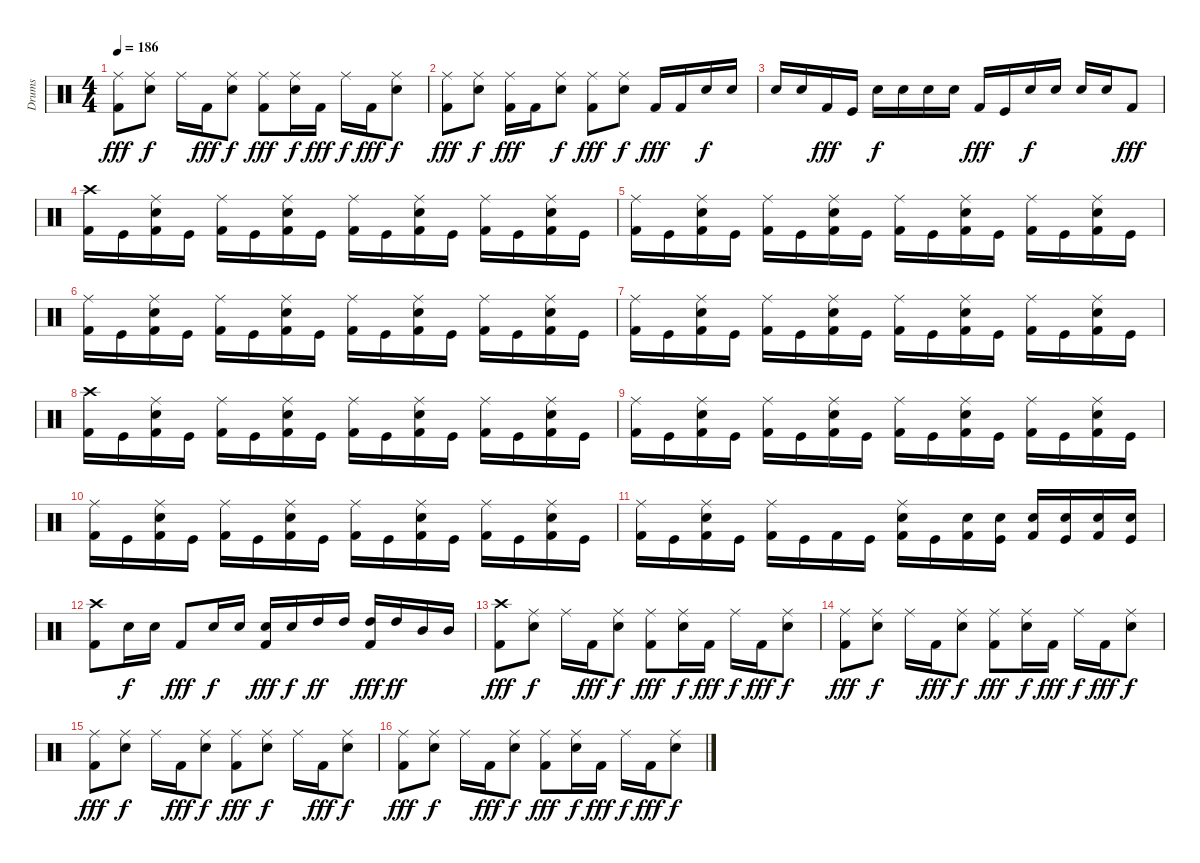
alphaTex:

\track ("Drums" "Drums") {instrument percussion}
\staff {score}
\articulation defaults
\ts (4 4)
\tempo 186
\clef neutral
\ks c
("Ride (middle)" "Kick (hit) 2").8{dy fff} ("Ride (middle)" "Electric Snare (hit)").8{dy f} "Ride (middle)".16 "Kick (hit) 2".16{dy fff} ("Ride (middle)" "Electric Snare (hit)").8{dy f} ("Ride (middle)" "Kick (hit) 2").8{dy fff} ("Ride (middle)" "Electric Snare (hit)").16{dy f} "Kick (hit) 2".16{dy fff} "Ride (middle)".16{dy f} "Kick (hit) 2".16{dy fff} ("Ride (middle)" "Electric Snare (hit)").8{dy f} |
("Ride (middle)" "Kick (hit) 2").8{dy fff} ("Ride (middle)" "Electric Snare (hit)").8{dy f} ("Ride (middle)" "Kick (hit) 2").16{dy fff} "Kick (hit) 2".16 ("Ride (middle)" "Electric Snare (hit)").8{dy f} ("Ride (middle)" "Kick (hit) 2").8{dy fff} ("Ride (middle)" "Electric Snare (hit)").8{dy f} "Kick (hit) 2".16{dy fff} "Kick (hit) 2".16 "Electric Snare (hit)".16{dy f} "Electric Snare (hit)".16 |
"Electric Snare (hit)".16 "Electric Snare (hit)".16 "Kick (hit) 2".16{dy fff} "Kick (hit)".16 "Electric Snare (hit)".16{dy f} "Electric Snare (hit)".16 "Electric Snare (hit)".16 "Electric Snare (hit)".16 "Kick (hit) 2".16{dy fff} "Kick (hit)".16 "Electric Snare (hit)".16{dy f} "Electric Snare (hit)".16 "Electric Snare (hit)".16 "Electric Snare (hit)".16 "Kick (hit) 2".8{dy fff} |
("Crash high (hit)" "Kick (hit) 2").16 "Kick (hit)".16 ("Ride (middle)" "Electric Snare (hit)" "Kick (hit) 2").16 "Kick (hit)".16 ("Ride (middle)" "Kick (hit) 2").16 "Kick (hit)".16 ("Ride (middle)" "Electric Snare (hit)" "Kick (hit) 2").16 "Kick (hit)".16 ("Ride (middle)" "Kick (hit) 2").16 "Kick (hit)".16 ("Ride (middle)" "Electric Snare (hit)" "Kick (hit) 2").16 "Kick (hit)".16 ("Ride (middle)" "Kick (hit) 2").16 "Kick (hit)".16 ("Ride (middle)" "Electric Snare (hit)" "Kick (hit) 2").16 "Kick (hit)".16 |
("Ride (middle)" "Kick (hit) 2").16 "Kick (hit)".16 ("Ride (middle)" "Electric Snare (hit)" "Kick (hit) 2").16 "Kick (hit)".16 ("Ride (middle)" "Kick (hit) 2").16 "Kick (hit)".16 ("Ride (middle)" "Electric Snare (hit)" "Kick (hit) 2").16 "Kick (hit)".16 ("Ride (middle)" "Kick (hit) 2").16 "Kick (hit)".16 ("Ride (middle)" "Electric Snare (hit)" "Kick (hit) 2").16 "Kick (hit)".16 ("Ride (middle)" "Kick (hit) 2").16 "Kick (hit)".16 ("Ride (middle)" "Electric Snare (hit)" "Kick (hit) 2").16 "Kick (hit)".16 |
("Ride (middle)" "Kick (hit) 2").16 "Kick (hit)".16 ("Ride (middle)" "Electric Snare (hit)" "Kick (hit) 2").16 "Kick (hit)".16 ("Ride (middle)" "Kick (hit) 2").16 "Kick (hit)".16 ("Ride (middle)" "Electric Snare (hit)" "Kick (hit) 2").16 "Kick (hit)".16 ("Ride (middle)" "Kick (hit) 2").16 "Kick (hit)".16 ("Ride (middle)" "Electric Snare (hit)" "Kick (hit) 2").16 "Kick (hit)".16 ("Ride (middle)" "Kick (hit) 2").16 "Kick (hit)".16 ("Ride (middle)" "Electric Snare (hit)" "Kick (hit) 2").16 "Kick (hit)".16 |
("Ride (middle)" "Kick (hit) 2").16 "Kick (hit)".16 ("Ride (middle)" "Electric Snare (hit)" "Kick (hit) 2").16 "Kick (hit)".16 ("Ride (middle)" "Kick (hit) 2").16 "Kick (hit)".16 ("Ride (middle)" "Electric Snare (hit)" "Kick (hit) 2").16 "Kick (hit)".16 ("Ride (middle)" "Kick (hit) 2").16 "Kick (hit)".16 ("Ride (middle)" "Electric Snare (hit)" "Kick (hit) 2").16 "Kick (hit)".16 ("Ride (middle)" "Kick (hit) 2").16 "Kick (hit)".16 ("Ride (middle)" "Electric Snare (hit)" "Kick (hit) 2").16 "Kick (hit)".16 |
("Crash high (hit)" "Kick (hit) 2").16 "Kick (hit)".16 ("Ride (middle)" "Electric Snare (hit)" "Kick (hit) 2").16 "Kick (hit)".16 ("Ride (middle)" "Kick (hit) 2").16 "Kick (hit)".16 ("Ride (middle)" "Electric Snare (hit)" "Kick (hit) 2").16 "Kick (hit)".16 ("Ride (middle)" "Kick (hit) 2").16 "Kick (hit)".16 ("Ride (middle)" "Electric Snare (hit)" "Kick (hit) 2").16 "Kick (hit)".16 ("Ride (middle)" "Kick (hit) 2").16 "Kick (hit)".16 ("Ride (middle)" "Electric Snare (hit)" "Kick (hit) 2").16 "Kick (hit)".16 |
("Ride (middle)" "Kick (hit) 2").16 "Kick (hit)".16 ("Ride (middle)" "Electric Snare (hit)" "Kick (hit) 2").16 "Kick (hit)".16 ("Ride (middle)" "Kick (hit) 2").16 "Kick (hit)".16 ("Ride (middle)" "Electric Snare (hit)" "Kick (hit) 2").16 "Kick (hit)".16 ("Ride (middle)" "Kick (hit) 2").16 "Kick (hit)".16 ("Ride (middle)" "Electric Snare (hit)" "Kick (hit) 2").16 "Kick (hit)".16 ("Ride (middle)" "Kick (hit) 2").16 "Kick (hit)".16 ("Ride (middle)" "Electric Snare (hit)" "Kick (hit) 2").16 "Kick (hit)".16 |
("Ride (middle)" "Kick (hit) 2").16 "Kick (hit)".16 ("Ride (middle)" "Electric Snare (hit)" "Kick (hit) 2").16 "Kick (hit)".16 ("Ride (middle)" "Kick (hit) 2").16 "Kick (hit)".16 ("Ride (middle)" "Electric Snare (hit)" "Kick (hit) 2").16 "Kick (hit)".16 ("Ride (middle)" "Kick (hit) 2").16 "Kick (hit)".16 ("Ride (middle)" "Electric Snare (hit)" "Kick (hit) 2").16 "Kick (hit)".16 ("Ride (middle)" "Kick (hit) 2").16 "Kick (hit)".16 ("Ride (middle)" "Electric Snare (hit)" "Kick (hit) 2").16 "Kick (hit)".16 |
("Ride (middle)" "Kick (hit) 2").16 "Kick (hit)".16 ("Ride (middle)" "Electric Snare (hit)" "Kick (hit) 2").16 "Kick (hit)".16 ("Ride (middle)" "Kick (hit) 2").16 "Kick (hit)".16 "Kick (hit) 2".16 "Kick (hit)".16 ("Ride (middle)" "Electric Snare (hit)" "Kick (hit) 2").16 "Kick (hit)".16 ("Electric Snare (hit)" "Kick (hit) 2").16 ("Electric Snare (hit)" "Kick (hit)").16 ("Electric Snare (hit)" "Kick (hit) 2").16 ("Electric Snare (hit)" "Kick (hit)").16 ("Electric Snare (hit)" "Kick (hit) 2").16 ("Electric Snare (hit)" "Kick (hit)").16 |
("Crash high (hit)" "Kick (hit) 2").8 "Electric Snare (hit)".16{dy f} "Electric Snare (hit)".16 "Kick (hit) 2".8{dy fff} "Electric Snare (hit)".16{dy f} "Electric Snare (hit)".16 ("Electric Snare (hit)" "Kick (hit) 2").16{dy fff} "Electric Snare (hit)".16{dy f} "High Tom (hit)".16{dy ff} "High Tom (hit)".16 ("High Tom (hit)" "Kick (hit) 2").16{dy fff} "High Tom (hit)".16{dy ff} "Mid Tom (hit)".16 "Mid Tom (hit)".16 |
("Crash high (hit)" "Kick (hit) 2").8{dy fff} ("Ride (middle)" "Electric Snare (hit)").8{dy f} "Ride (middle)".16 "Kick (hit) 2".16{dy fff} ("Ride (middle)" "Electric Snare (hit)").8{dy f} ("Ride (middle)" "Kick (hit) 2").8{dy fff} ("Ride (middle)" "Electric Snare (hit)").16{dy f} "Kick (hit) 2".16{dy fff} "Ride (middle)".16{dy f} "Kick (hit) 2".16{dy fff} ("Ride (middle)" "Electric Snare (hit)").8{dy f} |
("Ride (middle)" "Kick (hit) 2").8{dy fff} ("Ride (middle)" "Electric Snare (hit)").8{dy f} "Ride (middle)".16 "Kick (hit) 2".16{dy fff} ("Ride (middle)" "Electric Snare (hit)").8{dy f} ("Ride (middle)" "Kick (hit) 2").8{dy fff} ("Ride (middle)" "Electric Snare (hit)").16{dy f} "Kick (hit) 2".16{dy fff} "Ride (middle)".16{dy f} "Kick (hit) 2".16{dy fff} ("Ride (middle)" "Electric Snare (hit)").8{dy f} |
("Ride (middle)" "Kick (hit) 2").8{dy fff} ("Ride (middle)" "Electric Snare (hit)").8{dy f} "Ride (middle)".16 "Kick (hit) 2".16{dy fff} ("Ride (middle)" "Electric Snare (hit)").8{dy f} ("Ride (middle)" "Kick (hit) 2").8{dy fff} ("Ride (middle)" "Electric Snare (hit)").8{dy f} "Ride (middle)".16 "Kick (hit) 2".16{dy fff} ("Ride (middle)" "Electric Snare (hit)").8{dy f} |
("Ride (middle)" "Kick (hit) 2").8{dy fff} ("Ride (middle)" "Electric Snare (hit)").8{dy f} "Ride (middle)".16 "Kick (hit) 2".16{dy fff} ("Ride (middle)" "Electric Snare (hit)").8{dy f} ("Ride (middle)" "Kick (hit) 2").8{dy fff} ("Ride (middle)" "Electric Snare (hit)").16{dy f} "Kick (hit) 2".16{dy fff} "Ride (middle)".16{dy f} "Kick (hit) 2".16{dy fff} ("Ride (middle)" "Electric Snare (hit)").8{dy f}
